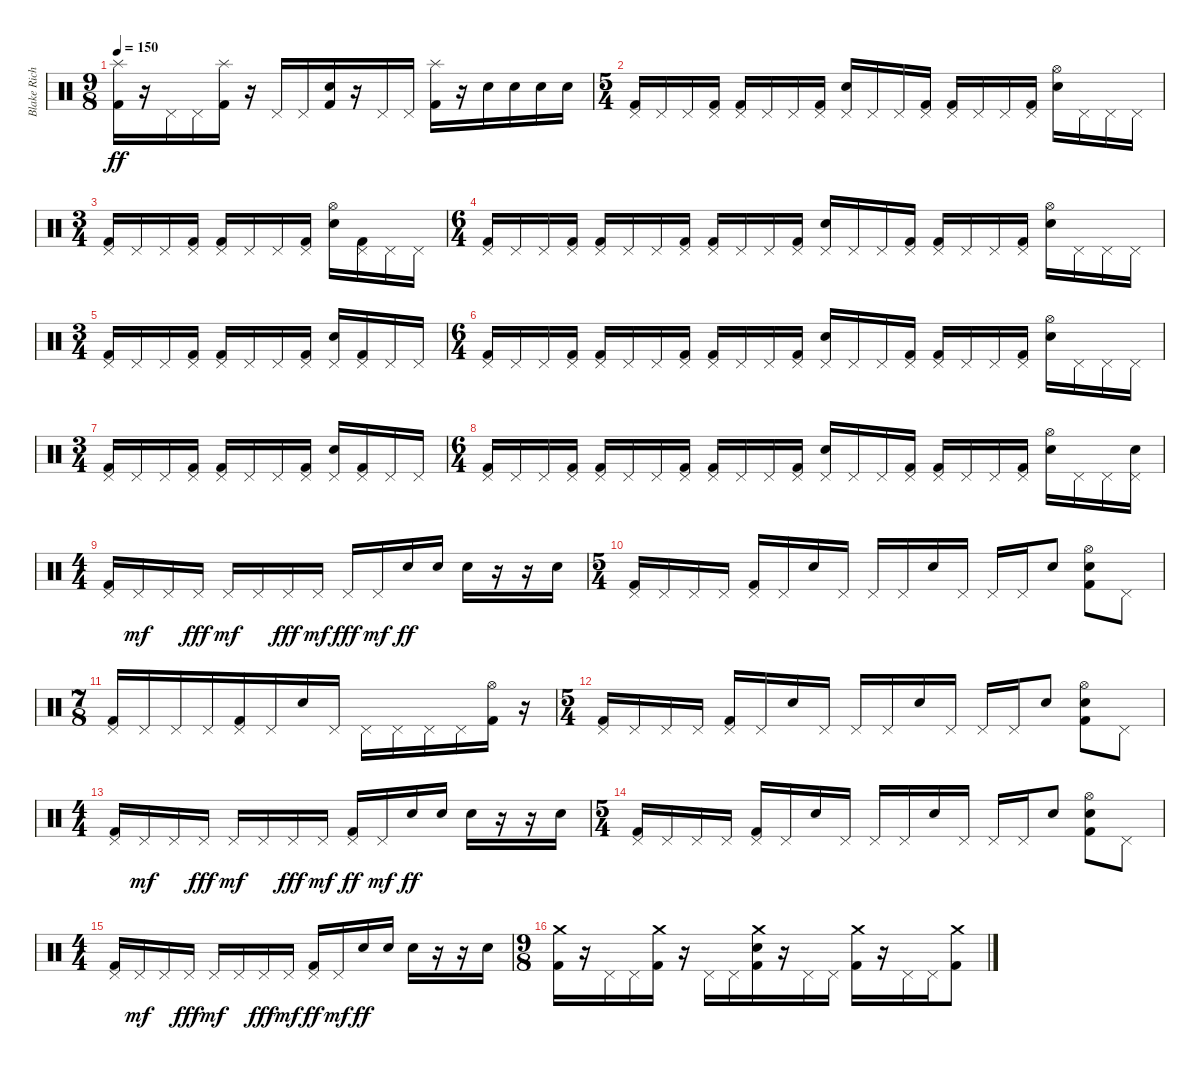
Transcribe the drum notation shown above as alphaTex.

\track ("Blake Richardson" "Blake Rich") {instrument percussion}
\staff {score}
\articulation defaults
\ts (9 8)
\tempo 150
\clef neutral
\ks c
("Splash (hit)" "Kick (hit) 2").16{dy ff} r.16 "Pedal Hi-Hat (hit)".16 "Pedal Hi-Hat (hit)".16 ("Splash (hit)" "Kick (hit) 2").16 r.16 "Pedal Hi-Hat (hit)".16 "Pedal Hi-Hat (hit)".16 ("Electric Snare (hit)" "Kick (hit) 2").16 r.16 "Pedal Hi-Hat (hit)".16 "Pedal Hi-Hat (hit)".16 ("Splash (hit)" "Kick (hit) 2").16 r.16 "Electric Snare (hit)".16 "Electric Snare (hit)".16 "Electric Snare (hit)".16 "Electric Snare (hit)".16 |
\ts (5 4)
("Pedal Hi-Hat (hit)" "Kick (hit) 2").16 "Pedal Hi-Hat (hit)".16 "Pedal Hi-Hat (hit)".16 ("Pedal Hi-Hat (hit)" "Kick (hit) 2").16 ("Pedal Hi-Hat (hit)" "Kick (hit) 2").16 "Pedal Hi-Hat (hit)".16 "Pedal Hi-Hat (hit)".16 ("Pedal Hi-Hat (hit)" "Kick (hit) 2").16 ("Pedal Hi-Hat (hit)" "Electric Snare (hit)").16 "Pedal Hi-Hat (hit)".16 "Pedal Hi-Hat (hit)".16 ("Pedal Hi-Hat (hit)" "Kick (hit) 2").16 ("Pedal Hi-Hat (hit)" "Kick (hit) 2").16 "Pedal Hi-Hat (hit)".16 "Pedal Hi-Hat (hit)".16 ("Pedal Hi-Hat (hit)" "Kick (hit) 2").16 ("Hi-Hat (open)" "Electric Snare (hit)").16 "Pedal Hi-Hat (hit)".16 "Pedal Hi-Hat (hit)".16 "Pedal Hi-Hat (hit)".16 |
\ts (3 4)
("Pedal Hi-Hat (hit)" "Kick (hit) 2").16 "Pedal Hi-Hat (hit)".16 "Pedal Hi-Hat (hit)".16 ("Pedal Hi-Hat (hit)" "Kick (hit) 2").16 ("Pedal Hi-Hat (hit)" "Kick (hit) 2").16 "Pedal Hi-Hat (hit)".16 "Pedal Hi-Hat (hit)".16 ("Pedal Hi-Hat (hit)" "Kick (hit) 2").16 ("Hi-Hat (open)" "Electric Snare (hit)").16 ("Pedal Hi-Hat (hit)" "Kick (hit) 2").16 "Pedal Hi-Hat (hit)".16 "Pedal Hi-Hat (hit)".16 |
\ts (6 4)
("Pedal Hi-Hat (hit)" "Kick (hit) 2").16 "Pedal Hi-Hat (hit)".16 "Pedal Hi-Hat (hit)".16 ("Pedal Hi-Hat (hit)" "Kick (hit) 2").16 ("Pedal Hi-Hat (hit)" "Kick (hit) 2").16 "Pedal Hi-Hat (hit)".16 "Pedal Hi-Hat (hit)".16 ("Pedal Hi-Hat (hit)" "Kick (hit) 2").16 ("Pedal Hi-Hat (hit)" "Kick (hit) 2").16 "Pedal Hi-Hat (hit)".16 "Pedal Hi-Hat (hit)".16 ("Pedal Hi-Hat (hit)" "Kick (hit) 2").16 ("Pedal Hi-Hat (hit)" "Electric Snare (hit)").16 "Pedal Hi-Hat (hit)".16 "Pedal Hi-Hat (hit)".16 ("Pedal Hi-Hat (hit)" "Kick (hit) 2").16 ("Pedal Hi-Hat (hit)" "Kick (hit) 2").16 "Pedal Hi-Hat (hit)".16 "Pedal Hi-Hat (hit)".16 ("Pedal Hi-Hat (hit)" "Kick (hit) 2").16 ("Hi-Hat (open)" "Electric Snare (hit)").16 "Pedal Hi-Hat (hit)".16 "Pedal Hi-Hat (hit)".16 "Pedal Hi-Hat (hit)".16 |
\ts (3 4)
("Pedal Hi-Hat (hit)" "Kick (hit) 2").16 "Pedal Hi-Hat (hit)".16 "Pedal Hi-Hat (hit)".16 ("Pedal Hi-Hat (hit)" "Kick (hit) 2").16 ("Pedal Hi-Hat (hit)" "Kick (hit) 2").16 "Pedal Hi-Hat (hit)".16 "Pedal Hi-Hat (hit)".16 ("Pedal Hi-Hat (hit)" "Kick (hit) 2").16 ("Pedal Hi-Hat (hit)" "Electric Snare (hit)").16 ("Pedal Hi-Hat (hit)" "Kick (hit) 2").16 "Pedal Hi-Hat (hit)".16 "Pedal Hi-Hat (hit)".16 |
\ts (6 4)
("Pedal Hi-Hat (hit)" "Kick (hit) 2").16 "Pedal Hi-Hat (hit)".16 "Pedal Hi-Hat (hit)".16 ("Pedal Hi-Hat (hit)" "Kick (hit) 2").16 ("Pedal Hi-Hat (hit)" "Kick (hit) 2").16 "Pedal Hi-Hat (hit)".16 "Pedal Hi-Hat (hit)".16 ("Pedal Hi-Hat (hit)" "Kick (hit) 2").16 ("Pedal Hi-Hat (hit)" "Kick (hit) 2").16 "Pedal Hi-Hat (hit)".16 "Pedal Hi-Hat (hit)".16 ("Pedal Hi-Hat (hit)" "Kick (hit) 2").16 ("Pedal Hi-Hat (hit)" "Electric Snare (hit)").16 "Pedal Hi-Hat (hit)".16 "Pedal Hi-Hat (hit)".16 ("Pedal Hi-Hat (hit)" "Kick (hit) 2").16 ("Pedal Hi-Hat (hit)" "Kick (hit) 2").16 "Pedal Hi-Hat (hit)".16 "Pedal Hi-Hat (hit)".16 ("Pedal Hi-Hat (hit)" "Kick (hit) 2").16 ("Hi-Hat (open)" "Electric Snare (hit)").16 "Pedal Hi-Hat (hit)".16 "Pedal Hi-Hat (hit)".16 "Pedal Hi-Hat (hit)".16 |
\ts (3 4)
("Pedal Hi-Hat (hit)" "Kick (hit) 2").16 "Pedal Hi-Hat (hit)".16 "Pedal Hi-Hat (hit)".16 ("Pedal Hi-Hat (hit)" "Kick (hit) 2").16 ("Pedal Hi-Hat (hit)" "Kick (hit) 2").16 "Pedal Hi-Hat (hit)".16 "Pedal Hi-Hat (hit)".16 ("Pedal Hi-Hat (hit)" "Kick (hit) 2").16 ("Pedal Hi-Hat (hit)" "Electric Snare (hit)").16 ("Pedal Hi-Hat (hit)" "Kick (hit) 2").16 "Pedal Hi-Hat (hit)".16 "Pedal Hi-Hat (hit)".16 |
\ts (6 4)
("Pedal Hi-Hat (hit)" "Kick (hit) 2").16 "Pedal Hi-Hat (hit)".16 "Pedal Hi-Hat (hit)".16 ("Pedal Hi-Hat (hit)" "Kick (hit) 2").16 ("Pedal Hi-Hat (hit)" "Kick (hit) 2").16 "Pedal Hi-Hat (hit)".16 "Pedal Hi-Hat (hit)".16 ("Pedal Hi-Hat (hit)" "Kick (hit) 2").16 ("Pedal Hi-Hat (hit)" "Kick (hit) 2").16 "Pedal Hi-Hat (hit)".16 "Pedal Hi-Hat (hit)".16 ("Pedal Hi-Hat (hit)" "Kick (hit) 2").16 ("Pedal Hi-Hat (hit)" "Electric Snare (hit)").16 "Pedal Hi-Hat (hit)".16 "Pedal Hi-Hat (hit)".16 ("Pedal Hi-Hat (hit)" "Kick (hit) 2").16 ("Pedal Hi-Hat (hit)" "Kick (hit) 2").16 "Pedal Hi-Hat (hit)".16 "Pedal Hi-Hat (hit)".16 ("Pedal Hi-Hat (hit)" "Kick (hit) 2").16 ("Hi-Hat (open)" "Electric Snare (hit)").16 "Pedal Hi-Hat (hit)".16 "Pedal Hi-Hat (hit)".16 ("Pedal Hi-Hat (hit)" "Electric Snare (hit)").16 |
\ts (4 4)
("Pedal Hi-Hat (hit)" "Kick (hit) 2").16 "Pedal Hi-Hat (hit)".16{dy mf} "Pedal Hi-Hat (hit)".16 "Pedal Hi-Hat (hit)".16{dy fff} "Pedal Hi-Hat (hit)".16{dy mf} "Pedal Hi-Hat (hit)".16 "Pedal Hi-Hat (hit)".16{dy fff} "Pedal Hi-Hat (hit)".16{dy mf} "Pedal Hi-Hat (hit)".16{dy fff} "Pedal Hi-Hat (hit)".16{dy mf} "Electric Snare (hit)".16{dy ff} "Electric Snare (hit)".16 "Electric Snare (hit)".16 r.16 r.16 "Electric Snare (hit)".16 |
\ts (5 4)
("Pedal Hi-Hat (hit)" "Kick (hit) 2").16 "Pedal Hi-Hat (hit)".16 "Pedal Hi-Hat (hit)".16 "Pedal Hi-Hat (hit)".16 ("Pedal Hi-Hat (hit)" "Kick (hit) 2").16 "Pedal Hi-Hat (hit)".16 "Electric Snare (hit)".16 "Pedal Hi-Hat (hit)".16 "Pedal Hi-Hat (hit)".16 "Pedal Hi-Hat (hit)".16 "Electric Snare (hit)".16 "Pedal Hi-Hat (hit)".16 "Pedal Hi-Hat (hit)".16 "Pedal Hi-Hat (hit)".16 "Electric Snare (hit)".8 ("Hi-Hat (open)" "Electric Snare (hit)" "Kick (hit) 2").8 "Pedal Hi-Hat (hit)".8 |
\ts (7 8)
("Pedal Hi-Hat (hit)" "Kick (hit) 2").16 "Pedal Hi-Hat (hit)".16 "Pedal Hi-Hat (hit)".16 "Pedal Hi-Hat (hit)".16 ("Pedal Hi-Hat (hit)" "Kick (hit) 2").16 "Pedal Hi-Hat (hit)".16 "Electric Snare (hit)".16 "Pedal Hi-Hat (hit)".16 "Pedal Hi-Hat (hit)".16 "Pedal Hi-Hat (hit)".16 "Pedal Hi-Hat (hit)".16 "Pedal Hi-Hat (hit)".16 ("Hi-Hat (open)" "Kick (hit) 2").16 r.16 |
\ts (5 4)
("Pedal Hi-Hat (hit)" "Kick (hit) 2").16 "Pedal Hi-Hat (hit)".16 "Pedal Hi-Hat (hit)".16 "Pedal Hi-Hat (hit)".16 ("Pedal Hi-Hat (hit)" "Kick (hit) 2").16 "Pedal Hi-Hat (hit)".16 "Electric Snare (hit)".16 "Pedal Hi-Hat (hit)".16 "Pedal Hi-Hat (hit)".16 "Pedal Hi-Hat (hit)".16 "Electric Snare (hit)".16 "Pedal Hi-Hat (hit)".16 "Pedal Hi-Hat (hit)".16 "Pedal Hi-Hat (hit)".16 "Electric Snare (hit)".8 ("Hi-Hat (open)" "Electric Snare (hit)" "Kick (hit) 2").8 "Pedal Hi-Hat (hit)".8 |
\ts (4 4)
("Pedal Hi-Hat (hit)" "Kick (hit) 2").16 "Pedal Hi-Hat (hit)".16{dy mf} "Pedal Hi-Hat (hit)".16 "Pedal Hi-Hat (hit)".16{dy fff} "Pedal Hi-Hat (hit)".16{dy mf} "Pedal Hi-Hat (hit)".16 "Pedal Hi-Hat (hit)".16{dy fff} "Pedal Hi-Hat (hit)".16{dy mf} ("Pedal Hi-Hat (hit)" "Kick (hit) 2").16{dy ff} "Pedal Hi-Hat (hit)".16{dy mf} "Electric Snare (hit)".16{dy ff} "Electric Snare (hit)".16 "Electric Snare (hit)".16 r.16 r.16 "Electric Snare (hit)".16 |
\ts (5 4)
("Pedal Hi-Hat (hit)" "Kick (hit) 2").16 "Pedal Hi-Hat (hit)".16 "Pedal Hi-Hat (hit)".16 "Pedal Hi-Hat (hit)".16 ("Pedal Hi-Hat (hit)" "Kick (hit) 2").16 "Pedal Hi-Hat (hit)".16 "Electric Snare (hit)".16 "Pedal Hi-Hat (hit)".16 "Pedal Hi-Hat (hit)".16 "Pedal Hi-Hat (hit)".16 "Electric Snare (hit)".16 "Pedal Hi-Hat (hit)".16 "Pedal Hi-Hat (hit)".16 "Pedal Hi-Hat (hit)".16 "Electric Snare (hit)".8 ("Hi-Hat (open)" "Electric Snare (hit)" "Kick (hit) 2").8 "Pedal Hi-Hat (hit)".8 |
\ts (4 4)
("Pedal Hi-Hat (hit)" "Kick (hit) 2").16 "Pedal Hi-Hat (hit)".16{dy mf} "Pedal Hi-Hat (hit)".16 "Pedal Hi-Hat (hit)".16{dy fff} "Pedal Hi-Hat (hit)".16{dy mf} "Pedal Hi-Hat (hit)".16 "Pedal Hi-Hat (hit)".16{dy fff} "Pedal Hi-Hat (hit)".16{dy mf} ("Pedal Hi-Hat (hit)" "Kick (hit) 2").16{dy ff} "Pedal Hi-Hat (hit)".16{dy mf} "Electric Snare (hit)".16{dy ff} "Electric Snare (hit)".16 "Electric Snare (hit)".16 r.16 r.16 "Electric Snare (hit)".16 |
\ts (9 8)
("Crash medium (hit)" "Kick (hit) 2").16 r.16 "Pedal Hi-Hat (hit)".16 "Pedal Hi-Hat (hit)".16 ("Crash medium (hit)" "Kick (hit) 2").16 r.16 "Pedal Hi-Hat (hit)".16 "Pedal Hi-Hat (hit)".16 ("Crash medium (hit)" "Electric Snare (hit)" "Kick (hit) 2").16 r.16 "Pedal Hi-Hat (hit)".16 "Pedal Hi-Hat (hit)".16 ("Crash medium (hit)" "Kick (hit) 2").16 r.16 "Pedal Hi-Hat (hit)".16 "Pedal Hi-Hat (hit)".16 ("Crash medium (hit)" "Kick (hit) 2").8
